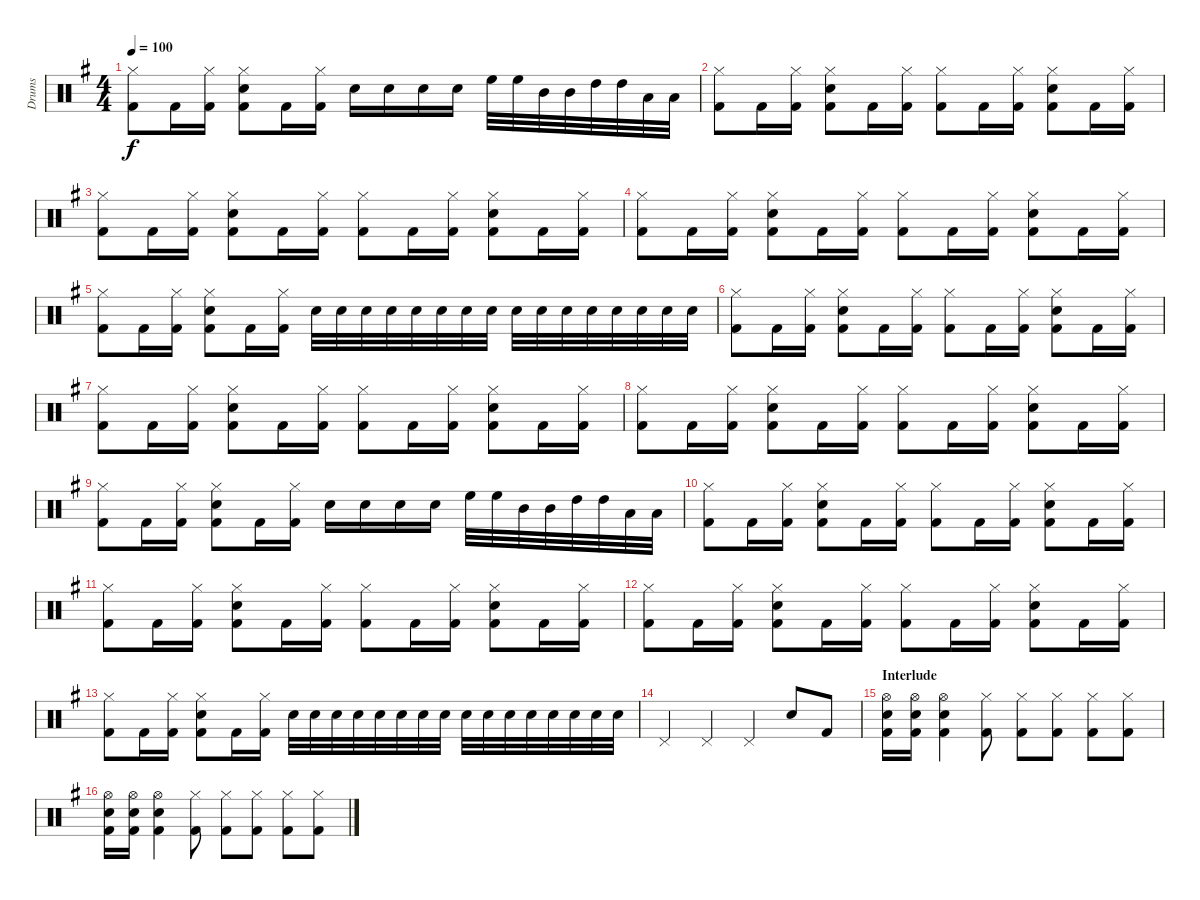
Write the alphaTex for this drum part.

\track ("Drums" "Drums") {instrument percussion}
\staff {score}
\articulation defaults
\ts (4 4)
\tempo 100
\clef neutral
\ks eminor
("Hi-Hat (closed)" "Kick (hit) 2").8{dy f} "Kick (hit) 2".16 ("Hi-Hat (closed)" "Kick (hit) 2").16 ("Hi-Hat (closed)" "Kick (hit) 2" "Snare (hit) 2").8 "Kick (hit) 2".16 ("Hi-Hat (closed)" "Kick (hit) 2").16 "Snare (hit) 2".16 "Snare (hit) 2".16 "Snare (hit) 2".16 "Snare (hit) 2".16 "High Floor Tom (hit)".32 "High Floor Tom (hit)".32 "Mid Tom (hit)".32 "Mid Tom (hit)".32 "High Tom (hit)".32 "High Tom (hit)".32 "Low Floor Tom (hit)".32 "Low Floor Tom (hit)".32 |
("Hi-Hat (closed)" "Kick (hit) 2").8 "Kick (hit) 2".16 ("Hi-Hat (closed)" "Kick (hit) 2").16 ("Hi-Hat (closed)" "Kick (hit) 2" "Snare (hit) 2").8 "Kick (hit) 2".16 ("Hi-Hat (closed)" "Kick (hit) 2").16 ("Hi-Hat (closed)" "Kick (hit) 2").8 "Kick (hit) 2".16 ("Hi-Hat (closed)" "Kick (hit) 2").16 ("Hi-Hat (closed)" "Kick (hit) 2" "Snare (hit) 2").8 "Kick (hit) 2".16 ("Hi-Hat (closed)" "Kick (hit) 2").16 |
("Hi-Hat (closed)" "Kick (hit) 2").8 "Kick (hit) 2".16 ("Hi-Hat (closed)" "Kick (hit) 2").16 ("Hi-Hat (closed)" "Kick (hit) 2" "Snare (hit) 2").8 "Kick (hit) 2".16 ("Hi-Hat (closed)" "Kick (hit) 2").16 ("Hi-Hat (closed)" "Kick (hit) 2").8 "Kick (hit) 2".16 ("Hi-Hat (closed)" "Kick (hit) 2").16 ("Hi-Hat (closed)" "Kick (hit) 2" "Snare (hit) 2").8 "Kick (hit) 2".16 ("Hi-Hat (closed)" "Kick (hit) 2").16 |
("Hi-Hat (closed)" "Kick (hit) 2").8 "Kick (hit) 2".16 ("Hi-Hat (closed)" "Kick (hit) 2").16 ("Hi-Hat (closed)" "Kick (hit) 2" "Snare (hit) 2").8 "Kick (hit) 2".16 ("Hi-Hat (closed)" "Kick (hit) 2").16 ("Hi-Hat (closed)" "Kick (hit) 2").8 "Kick (hit) 2".16 ("Hi-Hat (closed)" "Kick (hit) 2").16 ("Hi-Hat (closed)" "Kick (hit) 2" "Snare (hit) 2").8 "Kick (hit) 2".16 ("Hi-Hat (closed)" "Kick (hit) 2").16 |
("Hi-Hat (closed)" "Kick (hit) 2").8 "Kick (hit) 2".16 ("Hi-Hat (closed)" "Kick (hit) 2").16 ("Hi-Hat (closed)" "Kick (hit) 2" "Snare (hit) 2").8 "Kick (hit) 2".16 ("Hi-Hat (closed)" "Kick (hit) 2").16 "Snare (hit) 2".32 "Snare (hit) 2".32 "Snare (hit) 2".32 "Snare (hit) 2".32 "Snare (hit) 2".32 "Snare (hit) 2".32 "Snare (hit) 2".32 "Snare (hit) 2".32 "Snare (hit) 2".32 "Snare (hit) 2".32 "Snare (hit) 2".32 "Snare (hit) 2".32 "Snare (hit) 2".32 "Snare (hit) 2".32 "Snare (hit) 2".32 "Snare (hit) 2".32 |
("Hi-Hat (closed)" "Kick (hit) 2").8 "Kick (hit) 2".16 ("Hi-Hat (closed)" "Kick (hit) 2").16 ("Hi-Hat (closed)" "Kick (hit) 2" "Snare (hit) 2").8 "Kick (hit) 2".16 ("Hi-Hat (closed)" "Kick (hit) 2").16 ("Hi-Hat (closed)" "Kick (hit) 2").8 "Kick (hit) 2".16 ("Hi-Hat (closed)" "Kick (hit) 2").16 ("Hi-Hat (closed)" "Kick (hit) 2" "Snare (hit) 2").8 "Kick (hit) 2".16 ("Hi-Hat (closed)" "Kick (hit) 2").16 |
("Hi-Hat (closed)" "Kick (hit) 2").8 "Kick (hit) 2".16 ("Hi-Hat (closed)" "Kick (hit) 2").16 ("Hi-Hat (closed)" "Kick (hit) 2" "Snare (hit) 2").8 "Kick (hit) 2".16 ("Hi-Hat (closed)" "Kick (hit) 2").16 ("Hi-Hat (closed)" "Kick (hit) 2").8 "Kick (hit) 2".16 ("Hi-Hat (closed)" "Kick (hit) 2").16 ("Hi-Hat (closed)" "Kick (hit) 2" "Snare (hit) 2").8 "Kick (hit) 2".16 ("Hi-Hat (closed)" "Kick (hit) 2").16 |
("Hi-Hat (closed)" "Kick (hit) 2").8 "Kick (hit) 2".16 ("Hi-Hat (closed)" "Kick (hit) 2").16 ("Hi-Hat (closed)" "Kick (hit) 2" "Snare (hit) 2").8 "Kick (hit) 2".16 ("Hi-Hat (closed)" "Kick (hit) 2").16 ("Hi-Hat (closed)" "Kick (hit) 2").8 "Kick (hit) 2".16 ("Hi-Hat (closed)" "Kick (hit) 2").16 ("Hi-Hat (closed)" "Kick (hit) 2" "Snare (hit) 2").8 "Kick (hit) 2".16 ("Hi-Hat (closed)" "Kick (hit) 2").16 |
("Hi-Hat (closed)" "Kick (hit) 2").8 "Kick (hit) 2".16 ("Hi-Hat (closed)" "Kick (hit) 2").16 ("Hi-Hat (closed)" "Kick (hit) 2" "Snare (hit) 2").8 "Kick (hit) 2".16 ("Hi-Hat (closed)" "Kick (hit) 2").16 "Snare (hit) 2".16 "Snare (hit) 2".16 "Snare (hit) 2".16 "Snare (hit) 2".16 "High Floor Tom (hit)".32 "High Floor Tom (hit)".32 "Mid Tom (hit)".32 "Mid Tom (hit)".32 "High Tom (hit)".32 "High Tom (hit)".32 "Low Floor Tom (hit)".32 "Low Floor Tom (hit)".32 |
("Hi-Hat (closed)" "Kick (hit) 2").8 "Kick (hit) 2".16 ("Hi-Hat (closed)" "Kick (hit) 2").16 ("Hi-Hat (closed)" "Kick (hit) 2" "Snare (hit) 2").8 "Kick (hit) 2".16 ("Hi-Hat (closed)" "Kick (hit) 2").16 ("Hi-Hat (closed)" "Kick (hit) 2").8 "Kick (hit) 2".16 ("Hi-Hat (closed)" "Kick (hit) 2").16 ("Hi-Hat (closed)" "Kick (hit) 2" "Snare (hit) 2").8 "Kick (hit) 2".16 ("Hi-Hat (closed)" "Kick (hit) 2").16 |
("Hi-Hat (closed)" "Kick (hit) 2").8 "Kick (hit) 2".16 ("Hi-Hat (closed)" "Kick (hit) 2").16 ("Hi-Hat (closed)" "Kick (hit) 2" "Snare (hit) 2").8 "Kick (hit) 2".16 ("Hi-Hat (closed)" "Kick (hit) 2").16 ("Hi-Hat (closed)" "Kick (hit) 2").8 "Kick (hit) 2".16 ("Hi-Hat (closed)" "Kick (hit) 2").16 ("Hi-Hat (closed)" "Kick (hit) 2" "Snare (hit) 2").8 "Kick (hit) 2".16 ("Hi-Hat (closed)" "Kick (hit) 2").16 |
("Hi-Hat (closed)" "Kick (hit) 2").8 "Kick (hit) 2".16 ("Hi-Hat (closed)" "Kick (hit) 2").16 ("Hi-Hat (closed)" "Kick (hit) 2" "Snare (hit) 2").8 "Kick (hit) 2".16 ("Hi-Hat (closed)" "Kick (hit) 2").16 ("Hi-Hat (closed)" "Kick (hit) 2").8 "Kick (hit) 2".16 ("Hi-Hat (closed)" "Kick (hit) 2").16 ("Hi-Hat (closed)" "Kick (hit) 2" "Snare (hit) 2").8 "Kick (hit) 2".16 ("Hi-Hat (closed)" "Kick (hit) 2").16 |
("Hi-Hat (closed)" "Kick (hit) 2").8 "Kick (hit) 2".16 ("Hi-Hat (closed)" "Kick (hit) 2").16 ("Hi-Hat (closed)" "Kick (hit) 2" "Snare (hit) 2").8 "Kick (hit) 2".16 ("Hi-Hat (closed)" "Kick (hit) 2").16 "Snare (hit) 2".32 "Snare (hit) 2".32 "Snare (hit) 2".32 "Snare (hit) 2".32 "Snare (hit) 2".32 "Snare (hit) 2".32 "Snare (hit) 2".32 "Snare (hit) 2".32 "Snare (hit) 2".32 "Snare (hit) 2".32 "Snare (hit) 2".32 "Snare (hit) 2".32 "Snare (hit) 2".32 "Snare (hit) 2".32 "Snare (hit) 2".32 "Snare (hit) 2".32 |
"Pedal Hi-Hat (hit)".4 "Pedal Hi-Hat (hit)".4 "Pedal Hi-Hat (hit)".4 "Snare (hit) 2".8 "Kick (hit) 2".8 |
\section ("" "Interlude")
("Snare (hit) 2" "Hi-Hat (open)" "Kick (hit) 2").16 ("Snare (hit) 2" "Hi-Hat (open)" "Kick (hit) 2").16 ("Snare (hit) 2" "Hi-Hat (open)" "Kick (hit) 2").4 ("Hi-Hat (closed)" "Kick (hit) 2").8 ("Hi-Hat (closed)" "Kick (hit) 2").8 ("Hi-Hat (closed)" "Kick (hit) 2").8 ("Hi-Hat (closed)" "Kick (hit) 2").8 ("Hi-Hat (closed)" "Kick (hit) 2").8 |
("Snare (hit) 2" "Hi-Hat (open)" "Kick (hit) 2").16 ("Snare (hit) 2" "Hi-Hat (open)" "Kick (hit) 2").16 ("Snare (hit) 2" "Hi-Hat (open)" "Kick (hit) 2").4 ("Hi-Hat (closed)" "Kick (hit) 2").8 ("Hi-Hat (closed)" "Kick (hit) 2").8 ("Hi-Hat (closed)" "Kick (hit) 2").8 ("Hi-Hat (closed)" "Kick (hit) 2").8 ("Hi-Hat (closed)" "Kick (hit) 2").8
